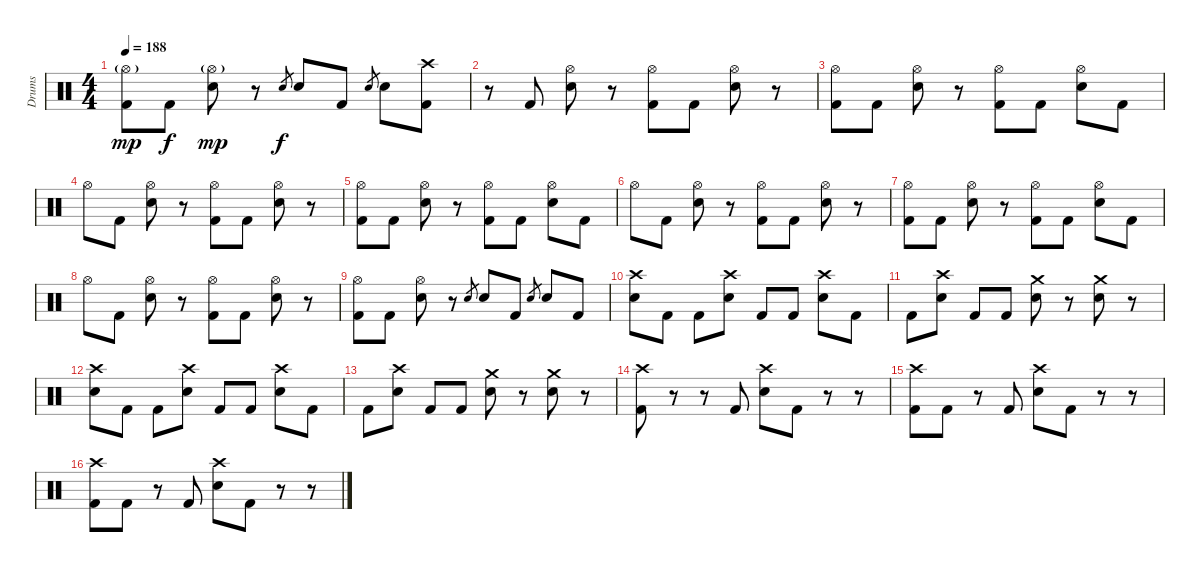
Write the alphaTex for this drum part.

\track ("Drums" "Drums") {instrument percussion}
\staff {score}
\articulation defaults
\ts (4 4)
\tempo 188
\clef neutral
\ks c
("Hi-Hat (open)"{g} "Kick (hit) 2").8{dy mp} "Kick (hit) 2".8{dy f} ("Hi-Hat (open)"{g} "Electric Snare (hit)").8{dy mp} r.8 "Electric Snare (hit)".8{gr dy f} "Electric Snare (hit)".8 "Kick (hit) 2".8 "Electric Snare (hit)".8{gr} "Electric Snare (hit)".8 ("Crash high (hit)" "Kick (hit) 2").8 |
r.8 "Kick (hit) 2".8 ("Hi-Hat (open)" "Electric Snare (hit)").8 r.8 ("Hi-Hat (open)" "Kick (hit) 2").8 "Kick (hit) 2".8 ("Hi-Hat (open)" "Electric Snare (hit)").8 r.8 |
("Hi-Hat (open)" "Kick (hit) 2").8 "Kick (hit) 2".8 ("Hi-Hat (open)" "Electric Snare (hit)").8 r.8 ("Hi-Hat (open)" "Kick (hit) 2").8 "Kick (hit) 2".8 ("Hi-Hat (open)" "Electric Snare (hit)").8 "Kick (hit) 2".8 |
"Hi-Hat (open)".8 "Kick (hit) 2".8 ("Hi-Hat (open)" "Electric Snare (hit)").8 r.8 ("Hi-Hat (open)" "Kick (hit) 2").8 "Kick (hit) 2".8 ("Hi-Hat (open)" "Electric Snare (hit)").8 r.8 |
("Hi-Hat (open)" "Kick (hit) 2").8 "Kick (hit) 2".8 ("Hi-Hat (open)" "Electric Snare (hit)").8 r.8 ("Hi-Hat (open)" "Kick (hit) 2").8 "Kick (hit) 2".8 ("Hi-Hat (open)" "Electric Snare (hit)").8 "Kick (hit) 2".8 |
"Hi-Hat (open)".8 "Kick (hit) 2".8 ("Hi-Hat (open)" "Electric Snare (hit)").8 r.8 ("Hi-Hat (open)" "Kick (hit) 2").8 "Kick (hit) 2".8 ("Hi-Hat (open)" "Electric Snare (hit)").8 r.8 |
("Hi-Hat (open)" "Kick (hit) 2").8 "Kick (hit) 2".8 ("Hi-Hat (open)" "Electric Snare (hit)").8 r.8 ("Hi-Hat (open)" "Kick (hit) 2").8 "Kick (hit) 2".8 ("Hi-Hat (open)" "Electric Snare (hit)").8 "Kick (hit) 2".8 |
"Hi-Hat (open)".8 "Kick (hit) 2".8 ("Hi-Hat (open)" "Electric Snare (hit)").8 r.8 ("Hi-Hat (open)" "Kick (hit) 2").8 "Kick (hit) 2".8 ("Hi-Hat (open)" "Electric Snare (hit)").8 r.8 |
("Hi-Hat (open)" "Kick (hit) 2").8 "Kick (hit) 2".8 ("Hi-Hat (open)" "Electric Snare (hit)").8 r.8 "Electric Snare (hit)".8{gr} "Electric Snare (hit)".8 "Kick (hit) 2".8 "Electric Snare (hit)".8{gr} "Electric Snare (hit)".8 "Kick (hit) 2".8 |
("Crash high (hit)" "Electric Snare (hit)").8 "Kick (hit) 2".8 "Kick (hit) 2".8 ("Crash high (hit)" "Electric Snare (hit)").8 "Kick (hit) 2".8 "Kick (hit) 2".8 ("Crash high (hit)" "Electric Snare (hit)").8 "Kick (hit) 2".8 |
"Kick (hit) 2".8 ("Crash high (hit)" "Electric Snare (hit)").8 "Kick (hit) 2".8 "Kick (hit) 2".8 ("Crash medium (hit)" "Electric Snare (hit)").8 r.8 ("Crash medium (hit)" "Electric Snare (hit)").8 r.8 |
("Crash high (hit)" "Electric Snare (hit)").8 "Kick (hit) 2".8 "Kick (hit) 2".8 ("Crash high (hit)" "Electric Snare (hit)").8 "Kick (hit) 2".8 "Kick (hit) 2".8 ("Crash high (hit)" "Electric Snare (hit)").8 "Kick (hit) 2".8 |
"Kick (hit) 2".8 ("Crash high (hit)" "Electric Snare (hit)").8 "Kick (hit) 2".8 "Kick (hit) 2".8 ("Crash medium (hit)" "Electric Snare (hit)").8 r.8 ("Crash medium (hit)" "Electric Snare (hit)").8 r.8 |
("Crash high (hit)" "Kick (hit) 2").8 r.8 r.8 "Kick (hit) 2".8 ("Crash high (hit)" "Electric Snare (hit)").8 "Kick (hit) 2".8 r.8 r.8 |
("Crash high (hit)" "Kick (hit) 2").8 "Kick (hit) 2".8 r.8 "Kick (hit) 2".8 ("Crash high (hit)" "Electric Snare (hit)").8 "Kick (hit) 2".8 r.8 r.8 |
("Crash high (hit)" "Kick (hit) 2").8 "Kick (hit) 2".8 r.8 "Kick (hit) 2".8 ("Crash high (hit)" "Electric Snare (hit)").8 "Kick (hit) 2".8 r.8 r.8
